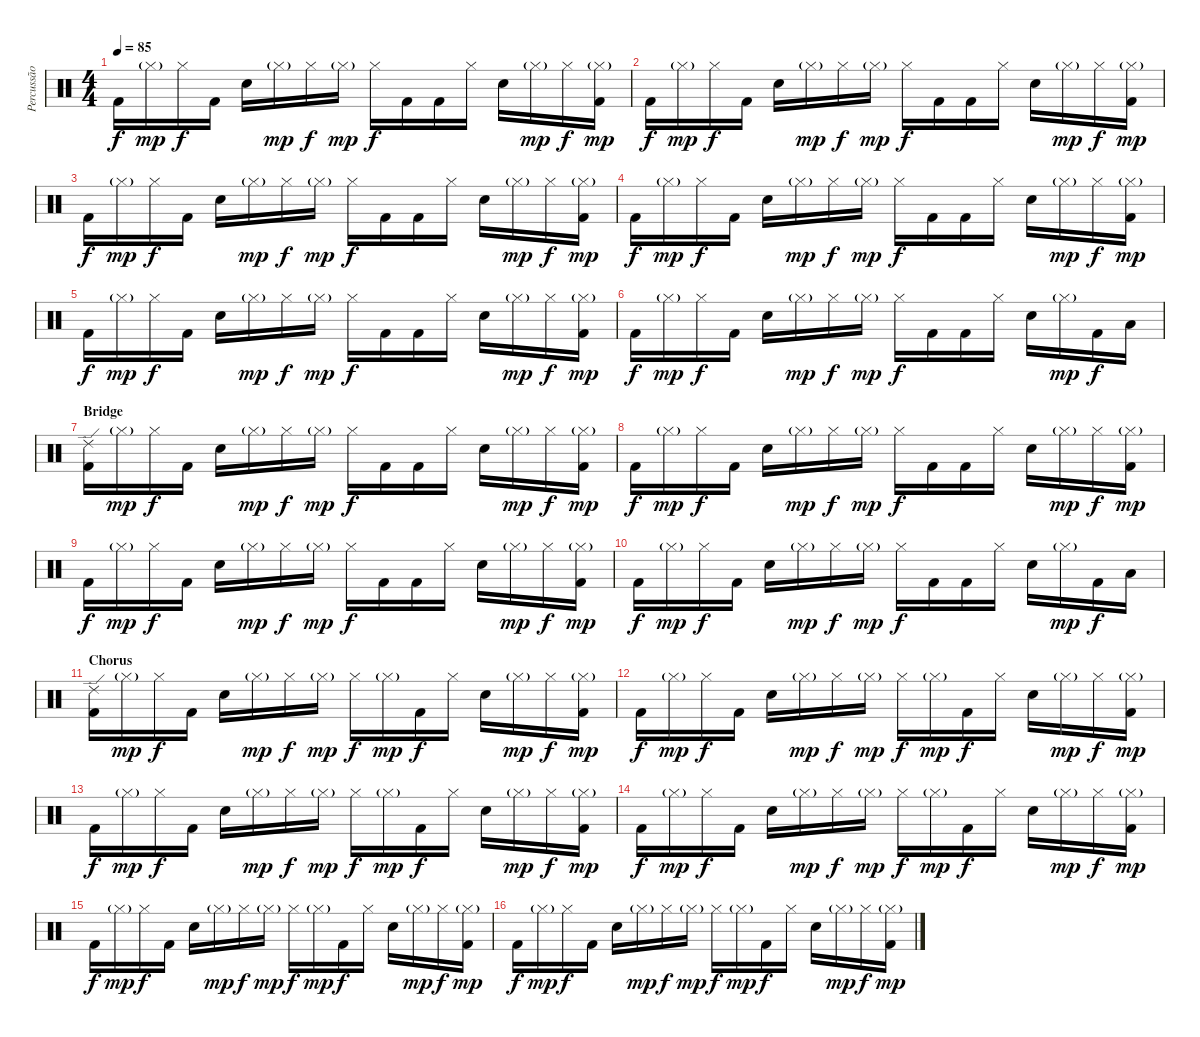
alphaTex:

\track ("Percussão" "Percussão") {instrument percussion}
\staff {score}
\articulation defaults
\ts (4 4)
\tempo 85
\clef neutral
\ks c "Kick (hit) 2".16{dy f} "Hi-Hat (closed)"{g}.16{dy mp} "Hi-Hat (closed)".16{dy f} "Kick (hit) 2".16 "Electric Snare (hit)".16 "Hi-Hat (closed)"{g}.16{dy mp} "Hi-Hat (closed)".16{dy f} "Hi-Hat (closed)"{g}.16{dy mp} "Hi-Hat (closed)".16{dy f} "Kick (hit) 2".16 "Kick (hit) 2".16 "Hi-Hat (closed)".16 "Electric Snare (hit)".16 "Hi-Hat (closed)"{g}.16{dy mp} "Hi-Hat (closed)".16{dy f}
("Hi-Hat (closed)"{g} "Kick (hit) 2").16{dy mp} |
"Kick (hit) 2".16{dy f} "Hi-Hat (closed)"{g}.16{dy mp} "Hi-Hat (closed)".16{dy f} "Kick (hit) 2".16 "Electric Snare (hit)".16 "Hi-Hat (closed)"{g}.16{dy mp} "Hi-Hat (closed)".16{dy f} "Hi-Hat (closed)"{g}.16{dy mp} "Hi-Hat (closed)".16{dy f} "Kick (hit) 2".16 "Kick (hit) 2".16 "Hi-Hat (closed)".16 "Electric Snare (hit)".16 "Hi-Hat (closed)"{g}.16{dy mp} "Hi-Hat (closed)".16{dy f} ("Hi-Hat (closed)"{g} "Kick (hit) 2").16{dy mp} |
"Kick (hit) 2".16{dy f} "Hi-Hat (closed)"{g}.16{dy mp} "Hi-Hat (closed)".16{dy f} "Kick (hit) 2".16 "Electric Snare (hit)".16 "Hi-Hat (closed)"{g}.16{dy mp} "Hi-Hat (closed)".16{dy f} "Hi-Hat (closed)"{g}.16{dy mp} "Hi-Hat (closed)".16{dy f} "Kick (hit) 2".16 "Kick (hit) 2".16 "Hi-Hat (closed)".16 "Electric Snare (hit)".16 "Hi-Hat (closed)"{g}.16{dy mp} "Hi-Hat (closed)".16{dy f} ("Hi-Hat (closed)"{g} "Kick (hit) 2").16{dy mp} |
"Kick (hit) 2".16{dy f} "Hi-Hat (closed)"{g}.16{dy mp} "Hi-Hat (closed)".16{dy f} "Kick (hit) 2".16 "Electric Snare (hit)".16 "Hi-Hat (closed)"{g}.16{dy mp} "Hi-Hat (closed)".16{dy f} "Hi-Hat (closed)"{g}.16{dy mp} "Hi-Hat (closed)".16{dy f} "Kick (hit) 2".16 "Kick (hit) 2".16 "Hi-Hat (closed)".16 "Electric Snare (hit)".16 "Hi-Hat (closed)"{g}.16{dy mp} "Hi-Hat (closed)".16{dy f} ("Hi-Hat (closed)"{g} "Kick (hit) 2").16{dy mp} |
"Kick (hit) 2".16{dy f} "Hi-Hat (closed)"{g}.16{dy mp} "Hi-Hat (closed)".16{dy f} "Kick (hit) 2".16 "Electric Snare (hit)".16 "Hi-Hat (closed)"{g}.16{dy mp} "Hi-Hat (closed)".16{dy f} "Hi-Hat (closed)"{g}.16{dy mp} "Hi-Hat (closed)".16{dy f} "Kick (hit) 2".16 "Kick (hit) 2".16 "Hi-Hat (closed)".16 "Electric Snare (hit)".16 "Hi-Hat (closed)"{g}.16{dy mp} "Hi-Hat (closed)".16{dy f} ("Hi-Hat (closed)"{g} "Kick (hit) 2").16{dy mp} |
"Kick (hit) 2".16{dy f} "Hi-Hat (closed)"{g}.16{dy mp} "Hi-Hat (closed)".16{dy f} "Kick (hit) 2".16 "Electric Snare (hit)".16 "Hi-Hat (closed)"{g}.16{dy mp} "Hi-Hat (closed)".16{dy f} "Hi-Hat (closed)"{g}.16{dy mp} "Hi-Hat (closed)".16{dy f} "Kick (hit) 2".16 "Kick (hit) 2".16 "Hi-Hat (closed)".16 "Electric Snare (hit)".16 "Hi-Hat (closed)"{g}.16{dy mp} "Kick (hit) 2".16{dy f} "Low Tom (hit)".16 |
\section ("" "Bridge")
("Ride (edge) 2" "Kick (hit) 2").16 "Hi-Hat (closed)"{g}.16{dy mp} "Hi-Hat (closed)".16{dy f} "Kick (hit) 2".16 "Electric Snare (hit)".16 "Hi-Hat (closed)"{g}.16{dy mp} "Hi-Hat (closed)".16{dy f} "Hi-Hat (closed)"{g}.16{dy mp} "Hi-Hat (closed)".16{dy f} "Kick (hit) 2".16 "Kick (hit) 2".16 "Hi-Hat (closed)".16 "Electric Snare (hit)".16 "Hi-Hat (closed)"{g}.16{dy mp} "Hi-Hat (closed)".16{dy f} ("Hi-Hat (closed)"{g} "Kick (hit) 2").16{dy mp} |
"Kick (hit) 2".16{dy f} "Hi-Hat (closed)"{g}.16{dy mp} "Hi-Hat (closed)".16{dy f} "Kick (hit) 2".16 "Electric Snare (hit)".16 "Hi-Hat (closed)"{g}.16{dy mp} "Hi-Hat (closed)".16{dy f} "Hi-Hat (closed)"{g}.16{dy mp} "Hi-Hat (closed)".16{dy f} "Kick (hit) 2".16 "Kick (hit) 2".16 "Hi-Hat (closed)".16 "Electric Snare (hit)".16 "Hi-Hat (closed)"{g}.16{dy mp} "Hi-Hat (closed)".16{dy f} ("Hi-Hat (closed)"{g} "Kick (hit) 2").16{dy mp} |
"Kick (hit) 2".16{dy f} "Hi-Hat (closed)"{g}.16{dy mp} "Hi-Hat (closed)".16{dy f} "Kick (hit) 2".16 "Electric Snare (hit)".16 "Hi-Hat (closed)"{g}.16{dy mp} "Hi-Hat (closed)".16{dy f} "Hi-Hat (closed)"{g}.16{dy mp} "Hi-Hat (closed)".16{dy f} "Kick (hit) 2".16 "Kick (hit) 2".16 "Hi-Hat (closed)".16 "Electric Snare (hit)".16 "Hi-Hat (closed)"{g}.16{dy mp} "Hi-Hat (closed)".16{dy f} ("Hi-Hat (closed)"{g} "Kick (hit) 2").16{dy mp} |
"Kick (hit) 2".16{dy f} "Hi-Hat (closed)"{g}.16{dy mp} "Hi-Hat (closed)".16{dy f} "Kick (hit) 2".16 "Electric Snare (hit)".16 "Hi-Hat (closed)"{g}.16{dy mp} "Hi-Hat (closed)".16{dy f} "Hi-Hat (closed)"{g}.16{dy mp} "Hi-Hat (closed)".16{dy f} "Kick (hit) 2".16 "Kick (hit) 2".16 "Hi-Hat (closed)".16 "Electric Snare (hit)".16 "Hi-Hat (closed)"{g}.16{dy mp} "Kick (hit) 2".16{dy f} "Low Tom (hit)".16 |
\section ("" "Chorus")
("Ride (edge) 2" "Kick (hit) 2").16 "Hi-Hat (closed)"{g}.16{dy mp} "Hi-Hat (closed)".16{dy f} "Kick (hit) 2".16 "Electric Snare (hit)".16 "Hi-Hat (closed)"{g}.16{dy mp} "Hi-Hat (closed)".16{dy f} "Hi-Hat (closed)"{g}.16{dy mp} "Hi-Hat (closed)".16{dy f} "Hi-Hat (closed)"{g}.16{dy mp} "Kick (hit) 2".16{dy f} "Hi-Hat (closed)".16 "Electric Snare (hit)".16 "Hi-Hat (closed)"{g}.16{dy mp} "Hi-Hat (closed)".16{dy f} ("Hi-Hat (closed)"{g} "Kick (hit) 2").16{dy mp} |
"Kick (hit) 2".16{dy f} "Hi-Hat (closed)"{g}.16{dy mp} "Hi-Hat (closed)".16{dy f} "Kick (hit) 2".16 "Electric Snare (hit)".16 "Hi-Hat (closed)"{g}.16{dy mp} "Hi-Hat (closed)".16{dy f} "Hi-Hat (closed)"{g}.16{dy mp} "Hi-Hat (closed)".16{dy f} "Hi-Hat (closed)"{g}.16{dy mp} "Kick (hit) 2".16{dy f} "Hi-Hat (closed)".16 "Electric Snare (hit)".16 "Hi-Hat (closed)"{g}.16{dy mp} "Hi-Hat (closed)".16{dy f} ("Hi-Hat (closed)"{g} "Kick (hit) 2").16{dy mp} |
"Kick (hit) 2".16{dy f} "Hi-Hat (closed)"{g}.16{dy mp} "Hi-Hat (closed)".16{dy f} "Kick (hit) 2".16 "Electric Snare (hit)".16 "Hi-Hat (closed)"{g}.16{dy mp} "Hi-Hat (closed)".16{dy f} "Hi-Hat (closed)"{g}.16{dy mp} "Hi-Hat (closed)".16{dy f} "Hi-Hat (closed)"{g}.16{dy mp} "Kick (hit) 2".16{dy f} "Hi-Hat (closed)".16 "Electric Snare (hit)".16 "Hi-Hat (closed)"{g}.16{dy mp} "Hi-Hat (closed)".16{dy f} ("Hi-Hat (closed)"{g} "Kick (hit) 2").16{dy mp} |
"Kick (hit) 2".16{dy f} "Hi-Hat (closed)"{g}.16{dy mp} "Hi-Hat (closed)".16{dy f} "Kick (hit) 2".16 "Electric Snare (hit)".16 "Hi-Hat (closed)"{g}.16{dy mp} "Hi-Hat (closed)".16{dy f} "Hi-Hat (closed)"{g}.16{dy mp} "Hi-Hat (closed)".16{dy f} "Hi-Hat (closed)"{g}.16{dy mp} "Kick (hit) 2".16{dy f} "Hi-Hat (closed)".16 "Electric Snare (hit)".16 "Hi-Hat (closed)"{g}.16{dy mp} "Hi-Hat (closed)".16{dy f} ("Hi-Hat (closed)"{g} "Kick (hit) 2").16{dy mp} |
"Kick (hit) 2".16{dy f} "Hi-Hat (closed)"{g}.16{dy mp} "Hi-Hat (closed)".16{dy f} "Kick (hit) 2".16 "Electric Snare (hit)".16 "Hi-Hat (closed)"{g}.16{dy mp} "Hi-Hat (closed)".16{dy f} "Hi-Hat (closed)"{g}.16{dy mp} "Hi-Hat (closed)".16{dy f} "Hi-Hat (closed)"{g}.16{dy mp} "Kick (hit) 2".16{dy f} "Hi-Hat (closed)".16 "Electric Snare (hit)".16 "Hi-Hat (closed)"{g}.16{dy mp} "Hi-Hat (closed)".16{dy f} ("Hi-Hat (closed)"{g} "Kick (hit) 2").16{dy mp} |
"Kick (hit) 2".16{dy f} "Hi-Hat (closed)"{g}.16{dy mp} "Hi-Hat (closed)".16{dy f} "Kick (hit) 2".16 "Electric Snare (hit)".16 "Hi-Hat (closed)"{g}.16{dy mp} "Hi-Hat (closed)".16{dy f} "Hi-Hat (closed)"{g}.16{dy mp} "Hi-Hat (closed)".16{dy f} "Hi-Hat (closed)"{g}.16{dy mp} "Kick (hit) 2".16{dy f} "Hi-Hat (closed)".16 "Electric Snare (hit)".16 "Hi-Hat (closed)"{g}.16{dy mp} "Hi-Hat (closed)".16{dy f} ("Hi-Hat (closed)"{g} "Kick (hit) 2").16{dy mp}
